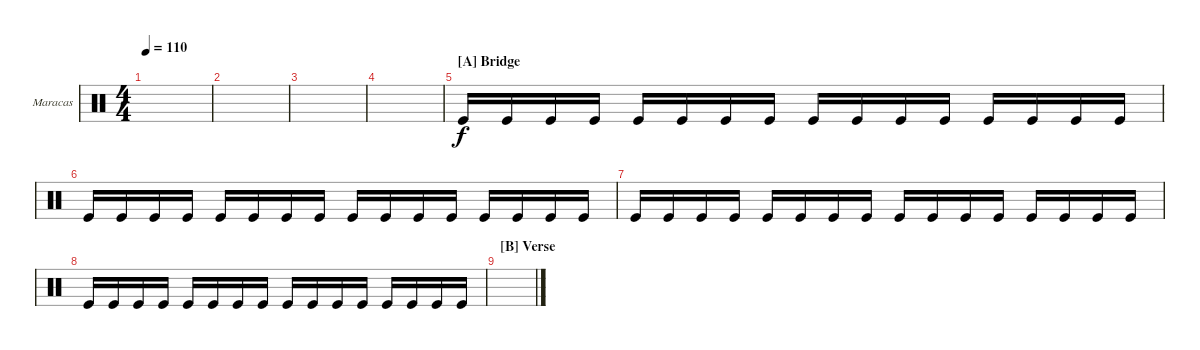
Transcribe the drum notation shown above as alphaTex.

\defaultSystemsLayout 4
\bracketExtendMode groupsimilarinstruments
\firstSystemTrackNameOrientation horizontal
\otherSystemsTrackNameOrientation horizontal
\track ("Maracas" "Maracas") {instrument percussion}
\staff {score}
\articulation defaults
\ts (4 4)
\tempo 110
\clef neutral
\ks c
|
|
|
|
\section ("A" "Bridge ")
"Kick (hit)".16 "Kick (hit)".16 "Kick (hit)".16 "Kick (hit)".16 "Kick (hit)".16 "Kick (hit)".16 "Kick (hit)".16 "Kick (hit)".16 "Kick (hit)".16 "Kick (hit)".16 "Kick (hit)".16 "Kick (hit)".16 "Kick (hit)".16 "Kick (hit)".16 "Kick (hit)".16 "Kick (hit)".16 |
"Kick (hit)".16 "Kick (hit)".16 "Kick (hit)".16 "Kick (hit)".16 "Kick (hit)".16 "Kick (hit)".16 "Kick (hit)".16 "Kick (hit)".16 "Kick (hit)".16 "Kick (hit)".16 "Kick (hit)".16 "Kick (hit)".16 "Kick (hit)".16 "Kick (hit)".16 "Kick (hit)".16 "Kick (hit)".16 |
"Kick (hit)".16 "Kick (hit)".16 "Kick (hit)".16 "Kick (hit)".16 "Kick (hit)".16 "Kick (hit)".16 "Kick (hit)".16 "Kick (hit)".16 "Kick (hit)".16 "Kick (hit)".16 "Kick (hit)".16 "Kick (hit)".16 "Kick (hit)".16 "Kick (hit)".16 "Kick (hit)".16 "Kick (hit)".16 |
"Kick (hit)".16 "Kick (hit)".16 "Kick (hit)".16 "Kick (hit)".16 "Kick (hit)".16 "Kick (hit)".16 "Kick (hit)".16 "Kick (hit)".16 "Kick (hit)".16 "Kick (hit)".16 "Kick (hit)".16 "Kick (hit)".16 "Kick (hit)".16 "Kick (hit)".16 "Kick (hit)".16 "Kick (hit)".16 |
\section ("B" "Verse")
